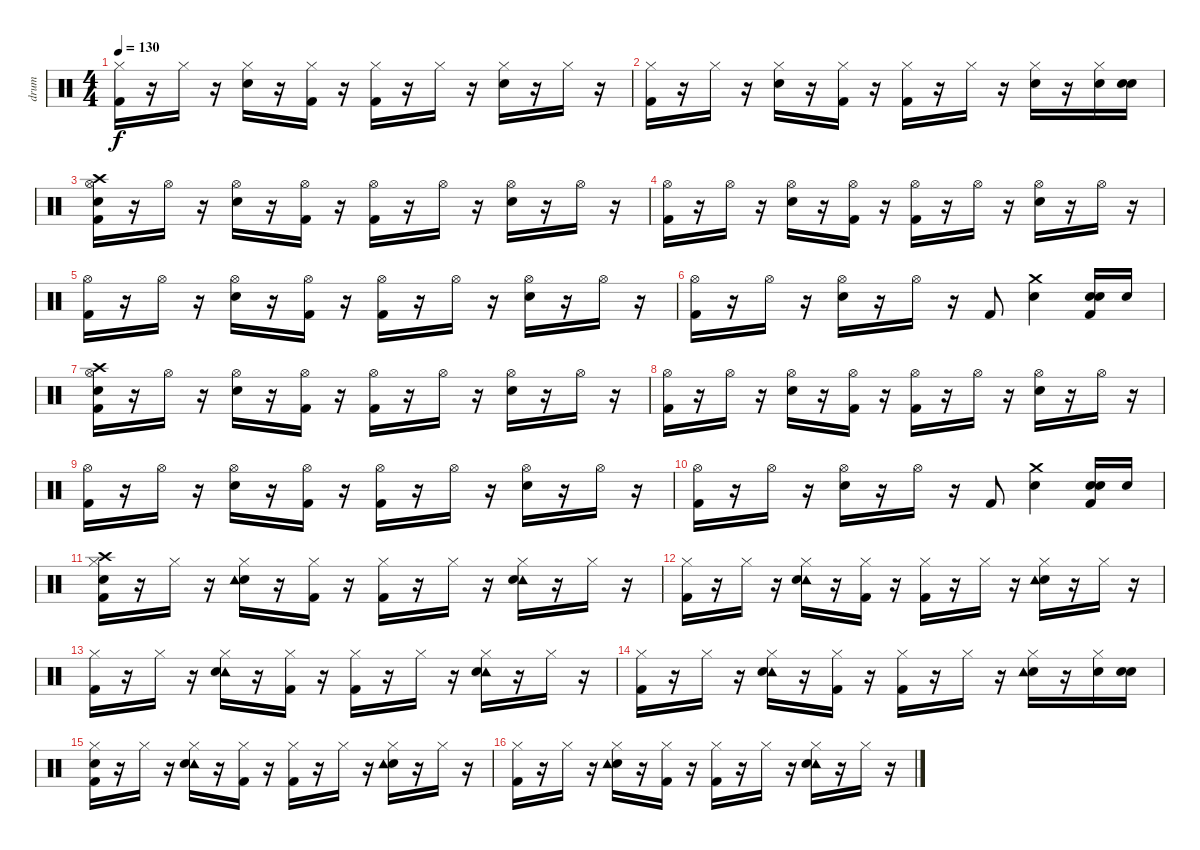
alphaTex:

\track ("drum" "drum") {instrument percussion}
\staff {score}
\articulation defaults
\ts (4 4)
\tempo 130
\clef neutral
\ks c
("Kick (hit) 2" "Hi-Hat (closed)").16{dy f} r.16 "Hi-Hat (closed)".16 r.16 ("Snare (hit) 2" "Hi-Hat (closed)").16 r.16 ("Kick (hit) 2" "Hi-Hat (closed)").16 r.16 ("Hi-Hat (closed)" "Kick (hit) 2").16 r.16 "Hi-Hat (closed)".16 r.16 ("Snare (hit) 2" "Hi-Hat (closed)").16 r.16 "Hi-Hat (closed)".16 r.16 |
("Kick (hit) 2" "Hi-Hat (closed)").16 r.16 "Hi-Hat (closed)".16 r.16 ("Hi-Hat (closed)" "Snare (hit) 2").16 r.16 ("Hi-Hat (closed)" "Kick (hit) 2").16 r.16 ("Kick (hit) 2" "Hi-Hat (closed)").16 r.16 "Hi-Hat (closed)".16 r.16 ("Hi-Hat (closed)" "Snare (hit) 2").16 r.16 ("Snare (hit) 2" "Hi-Hat (closed)").16 ("Snare (hit)" "Snare (hit) 2").16 |
("Snare (hit)" "Hi-Hat (open)" "Kick (hit) 2" "Crash high (hit)").16 r.16 "Hi-Hat (open)".16 r.16 ("Snare (hit) 2" "Hi-Hat (open)").16 r.16 ("Hi-Hat (open)" "Kick (hit) 2").16 r.16 ("Kick (hit) 2" "Hi-Hat (open)").16 r.16 "Hi-Hat (open)".16 r.16 ("Hi-Hat (open)" "Snare (hit) 2").16 r.16 "Hi-Hat (open)".16 r.16 |
("Hi-Hat (open)" "Kick (hit) 2").16 r.16 "Hi-Hat (open)".16 r.16 ("Snare (hit) 2" "Hi-Hat (open)").16 r.16 ("Kick (hit) 2" "Hi-Hat (open)").16 r.16 ("Kick (hit) 2" "Hi-Hat (open)").16 r.16 "Hi-Hat (open)".16 r.16 ("Snare (hit) 2" "Hi-Hat (open)").16 r.16 "Hi-Hat (open)".16 r.16 |
("Hi-Hat (open)" "Kick (hit) 2").16 r.16 "Hi-Hat (open)".16 r.16 ("Hi-Hat (open)" "Snare (hit) 2").16 r.16 ("Hi-Hat (open)" "Kick (hit) 2").16 r.16 ("Kick (hit) 2" "Hi-Hat (open)").16 r.16 "Hi-Hat (open)".16 r.16 ("Hi-Hat (open)" "Snare (hit) 2").16 r.16 "Hi-Hat (open)".16 r.16 |
("Kick (hit) 2" "Hi-Hat (open)").16 r.16 "Hi-Hat (open)".16 r.16 ("Hi-Hat (open)" "Snare (hit) 2").16 r.16 "Hi-Hat (open)".16 r.16 "Kick (hit) 2".8 ("Snare (hit) 2" "Crash medium (hit)").4 ("Snare (hit)" "Kick (hit) 2" "Snare (hit) 2").16 "Snare (hit) 2".16 |
("Snare (hit)" "Kick (hit) 2" "Hi-Hat (open)" "Crash high (hit)").16 r.16 "Hi-Hat (open)".16 r.16 ("Hi-Hat (open)" "Snare (hit) 2").16 r.16 ("Kick (hit) 2" "Hi-Hat (open)").16 r.16 ("Hi-Hat (open)" "Kick (hit) 2").16 r.16 "Hi-Hat (open)".16 r.16 ("Hi-Hat (open)" "Snare (hit) 2").16 r.16 "Hi-Hat (open)".16 r.16 |
("Kick (hit) 2" "Hi-Hat (open)").16 r.16 "Hi-Hat (open)".16 r.16 ("Hi-Hat (open)" "Snare (hit) 2").16 r.16 ("Kick (hit) 2" "Hi-Hat (open)").16 r.16 ("Hi-Hat (open)" "Kick (hit) 2").16 r.16 "Hi-Hat (open)".16 r.16 ("Snare (hit) 2" "Hi-Hat (open)").16 r.16 "Hi-Hat (open)".16 r.16 |
("Hi-Hat (open)" "Kick (hit) 2").16 r.16 "Hi-Hat (open)".16 r.16 ("Snare (hit) 2" "Hi-Hat (open)").16 r.16 ("Hi-Hat (open)" "Kick (hit) 2").16 r.16 ("Hi-Hat (open)" "Kick (hit) 2").16 r.16 "Hi-Hat (open)".16 r.16 ("Hi-Hat (open)" "Snare (hit) 2").16 r.16 "Hi-Hat (open)".16 r.16 |
("Kick (hit) 2" "Hi-Hat (open)").16 r.16 "Hi-Hat (open)".16 r.16 ("Snare (hit) 2" "Hi-Hat (open)").16 r.16 "Hi-Hat (open)".16 r.16 "Kick (hit) 2".8 ("Crash medium (hit)" "Snare (hit) 2").4 ("Snare (hit)" "Snare (hit) 2" "Kick (hit) 2").16 "Snare (hit) 2".16 |
("Snare (hit)" "Kick (hit) 2" "Crash high (hit)" "Hi-Hat (closed)").16 r.16 "Hi-Hat (closed)".16 r.16 ("Snare (hit) 2" "Hi-Hat (closed)" "Tambourine (hit)").16 r.16 ("Hi-Hat (closed)" "Kick (hit) 2").16 r.16 ("Kick (hit) 2" "Hi-Hat (closed)").16 r.16 "Hi-Hat (closed)".16 r.16 ("Tambourine (hit)" "Hi-Hat (closed)" "Snare (hit) 2").16 r.16 "Hi-Hat (closed)".16 r.16 |
("Kick (hit) 2" "Hi-Hat (closed)").16 r.16 "Hi-Hat (closed)".16 r.16 ("Tambourine (hit)" "Snare (hit) 2" "Hi-Hat (closed)").16 r.16 ("Hi-Hat (closed)" "Kick (hit) 2").16 r.16 ("Kick (hit) 2" "Hi-Hat (closed)").16 r.16 "Hi-Hat (closed)".16 r.16 ("Snare (hit) 2" "Hi-Hat (closed)" "Tambourine (hit)").16 r.16 "Hi-Hat (closed)".16 r.16 |
("Hi-Hat (closed)" "Kick (hit) 2").16 r.16 "Hi-Hat (closed)".16 r.16 ("Hi-Hat (closed)" "Tambourine (hit)" "Snare (hit) 2").16 r.16 ("Kick (hit) 2" "Hi-Hat (closed)").16 r.16 ("Kick (hit) 2" "Hi-Hat (closed)").16 r.16 "Hi-Hat (closed)".16 r.16 ("Tambourine (hit)" "Hi-Hat (closed)" "Snare (hit) 2").16 r.16 "Hi-Hat (closed)".16 r.16 |
("Hi-Hat (closed)" "Kick (hit) 2").16 r.16 "Hi-Hat (closed)".16 r.16 ("Tambourine (hit)" "Hi-Hat (closed)" "Snare (hit) 2").16 r.16 ("Hi-Hat (closed)" "Kick (hit) 2").16 r.16 ("Hi-Hat (closed)" "Kick (hit) 2").16 r.16 "Hi-Hat (closed)".16 r.16 ("Snare (hit) 2" "Tambourine (hit)" "Hi-Hat (closed)").16 r.16 ("Snare (hit) 2" "Hi-Hat (closed)").16 ("Snare (hit)" "Snare (hit) 2").16 |
("Snare (hit)" "Hi-Hat (closed)" "Kick (hit) 2").16 r.16 "Hi-Hat (closed)".16 r.16 ("Tambourine (hit)" "Snare (hit) 2" "Hi-Hat (closed)").16 r.16 ("Hi-Hat (closed)" "Kick (hit) 2").16 r.16 ("Kick (hit) 2" "Hi-Hat (closed)").16 r.16 "Hi-Hat (closed)".16 r.16 ("Snare (hit) 2" "Hi-Hat (closed)" "Tambourine (hit)").16 r.16 "Hi-Hat (closed)".16 r.16 |
("Hi-Hat (closed)" "Kick (hit) 2").16 r.16 "Hi-Hat (closed)".16 r.16 ("Snare (hit) 2" "Tambourine (hit)" "Hi-Hat (closed)").16 r.16 ("Hi-Hat (closed)" "Kick (hit) 2").16 r.16 ("Kick (hit) 2" "Hi-Hat (closed)").16 r.16 "Hi-Hat (closed)".16 r.16 ("Hi-Hat (closed)" "Tambourine (hit)" "Snare (hit) 2").16 r.16 "Hi-Hat (closed)".16 r.16
